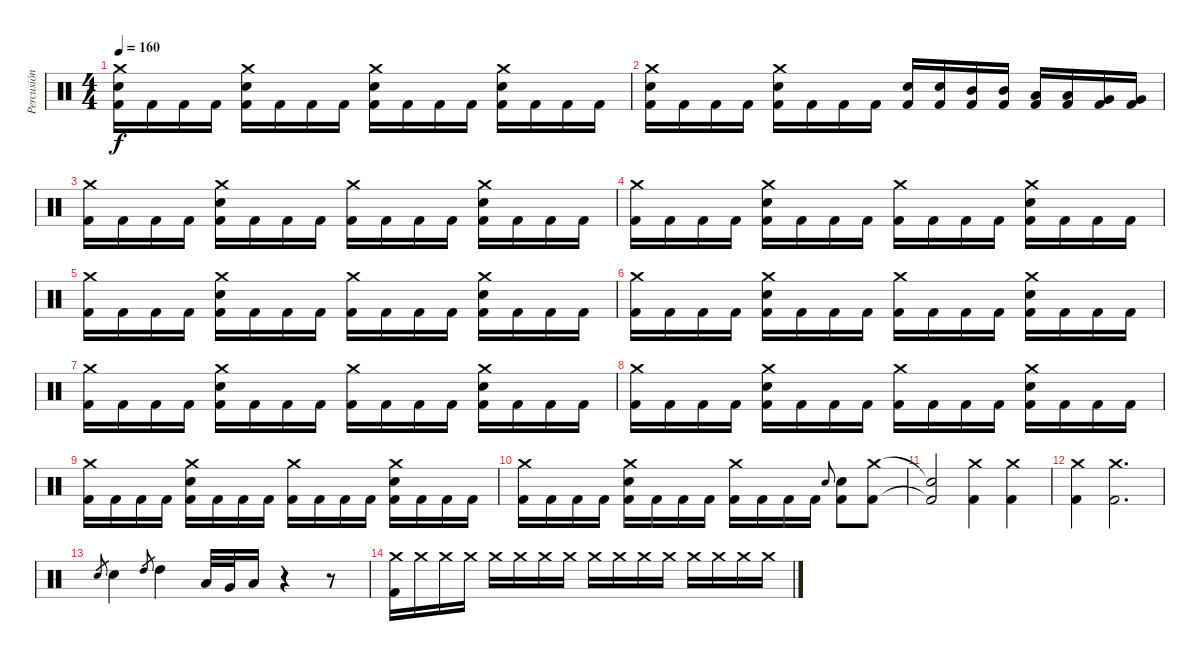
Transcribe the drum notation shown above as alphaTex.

\track ("Percusión" "Percusión") {instrument percussion}
\staff {score}
\articulation defaults
\ts (4 4)
\tempo 160
\clef neutral
\ks c
("Crash medium (hit)" "Snare (hit) 2" "Kick (hit) 2").16{dy f} "Kick (hit) 2".16 "Kick (hit) 2".16 "Kick (hit) 2".16 ("Crash medium (hit)" "Snare (hit) 2" "Kick (hit) 2").16 "Kick (hit) 2".16 "Kick (hit) 2".16 "Kick (hit) 2".16 ("Crash medium (hit)" "Snare (hit) 2" "Kick (hit) 2").16 "Kick (hit) 2".16 "Kick (hit) 2".16 "Kick (hit) 2".16 ("Crash medium (hit)" "Snare (hit) 2" "Kick (hit) 2").16 "Kick (hit) 2".16 "Kick (hit) 2".16 "Kick (hit) 2".16 |
("Crash medium (hit)" "Snare (hit) 2" "Kick (hit) 2").16 "Kick (hit) 2".16 "Kick (hit) 2".16 "Kick (hit) 2".16 ("Crash medium (hit)" "Snare (hit) 2" "Kick (hit) 2").16 "Kick (hit) 2".16 "Kick (hit) 2".16 "Kick (hit) 2".16 ("Snare (hit) 2" "Kick (hit) 2").16 ("Snare (hit) 2" "Kick (hit) 2").16 ("Mid Tom (hit)" "Kick (hit) 2").16 ("Mid Tom (hit)" "Kick (hit) 2").16 ("Low Tom (hit)" "Kick (hit) 2").16 ("Low Tom (hit)" "Kick (hit) 2").16 ("Very Low Tom (hit)" "Kick (hit) 2").16 ("Very Low Tom (hit)" "Kick (hit) 2").16 |
("Crash medium (hit)" "Kick (hit) 2").16 "Kick (hit) 2".16 "Kick (hit) 2".16 "Kick (hit) 2".16 ("Crash medium (hit)" "Kick (hit) 2" "Snare (hit) 2").16 "Kick (hit) 2".16 "Kick (hit) 2".16 "Kick (hit) 2".16 ("Crash medium (hit)" "Kick (hit) 2").16 "Kick (hit) 2".16 "Kick (hit) 2".16 "Kick (hit) 2".16 ("Crash medium (hit)" "Snare (hit) 2" "Kick (hit) 2").16 "Kick (hit) 2".16 "Kick (hit) 2".16 "Kick (hit) 2".16 |
("Crash medium (hit)" "Kick (hit) 2").16 "Kick (hit) 2".16 "Kick (hit) 2".16 "Kick (hit) 2".16 ("Crash medium (hit)" "Kick (hit) 2" "Snare (hit) 2").16 "Kick (hit) 2".16 "Kick (hit) 2".16 "Kick (hit) 2".16 ("Crash medium (hit)" "Kick (hit) 2").16 "Kick (hit) 2".16 "Kick (hit) 2".16 "Kick (hit) 2".16 ("Crash medium (hit)" "Snare (hit) 2" "Kick (hit) 2").16 "Kick (hit) 2".16 "Kick (hit) 2".16 "Kick (hit) 2".16 |
("Crash medium (hit)" "Kick (hit) 2").16 "Kick (hit) 2".16 "Kick (hit) 2".16 "Kick (hit) 2".16 ("Crash medium (hit)" "Kick (hit) 2" "Snare (hit) 2").16 "Kick (hit) 2".16 "Kick (hit) 2".16 "Kick (hit) 2".16 ("Crash medium (hit)" "Kick (hit) 2").16 "Kick (hit) 2".16 "Kick (hit) 2".16 "Kick (hit) 2".16 ("Crash medium (hit)" "Snare (hit) 2" "Kick (hit) 2").16 "Kick (hit) 2".16 "Kick (hit) 2".16 "Kick (hit) 2".16 |
("Crash medium (hit)" "Kick (hit) 2").16 "Kick (hit) 2".16 "Kick (hit) 2".16 "Kick (hit) 2".16 ("Crash medium (hit)" "Kick (hit) 2" "Snare (hit) 2").16 "Kick (hit) 2".16 "Kick (hit) 2".16 "Kick (hit) 2".16 ("Crash medium (hit)" "Kick (hit) 2").16 "Kick (hit) 2".16 "Kick (hit) 2".16 "Kick (hit) 2".16 ("Crash medium (hit)" "Snare (hit) 2" "Kick (hit) 2").16 "Kick (hit) 2".16 "Kick (hit) 2".16 "Kick (hit) 2".16 |
("Crash medium (hit)" "Kick (hit) 2").16 "Kick (hit) 2".16 "Kick (hit) 2".16 "Kick (hit) 2".16 ("Crash medium (hit)" "Kick (hit) 2" "Snare (hit) 2").16 "Kick (hit) 2".16 "Kick (hit) 2".16 "Kick (hit) 2".16 ("Crash medium (hit)" "Kick (hit) 2").16 "Kick (hit) 2".16 "Kick (hit) 2".16 "Kick (hit) 2".16 ("Crash medium (hit)" "Snare (hit) 2" "Kick (hit) 2").16 "Kick (hit) 2".16 "Kick (hit) 2".16 "Kick (hit) 2".16 |
("Crash medium (hit)" "Kick (hit) 2").16 "Kick (hit) 2".16 "Kick (hit) 2".16 "Kick (hit) 2".16 ("Crash medium (hit)" "Kick (hit) 2" "Snare (hit) 2").16 "Kick (hit) 2".16 "Kick (hit) 2".16 "Kick (hit) 2".16 ("Crash medium (hit)" "Kick (hit) 2").16 "Kick (hit) 2".16 "Kick (hit) 2".16 "Kick (hit) 2".16 ("Crash medium (hit)" "Snare (hit) 2" "Kick (hit) 2").16 "Kick (hit) 2".16 "Kick (hit) 2".16 "Kick (hit) 2".16 |
("Crash medium (hit)" "Kick (hit) 2").16 "Kick (hit) 2".16 "Kick (hit) 2".16 "Kick (hit) 2".16 ("Crash medium (hit)" "Kick (hit) 2" "Snare (hit) 2").16 "Kick (hit) 2".16 "Kick (hit) 2".16 "Kick (hit) 2".16 ("Crash medium (hit)" "Kick (hit) 2").16 "Kick (hit) 2".16 "Kick (hit) 2".16 "Kick (hit) 2".16 ("Crash medium (hit)" "Snare (hit) 2" "Kick (hit) 2").16 "Kick (hit) 2".16 "Kick (hit) 2".16 "Kick (hit) 2".16 |
("Crash medium (hit)" "Kick (hit) 2").16 "Kick (hit) 2".16 "Kick (hit) 2".16 "Kick (hit) 2".16 ("Crash medium (hit)" "Kick (hit) 2" "Snare (hit) 2").16 "Kick (hit) 2".16 "Kick (hit) 2".16 "Kick (hit) 2".16 ("Crash medium (hit)" "Kick (hit) 2").16 "Kick (hit) 2".16 "Kick (hit) 2".16 "Kick (hit) 2".16 "Snare (hit) 2".8{gr onbeat} ("Snare (hit) 2" "Kick (hit) 2").8 ("Crash medium (hit)" "Kick (hit) 2").8 |
("Snare (hit)"{t} "Kick (hit) 2"{t}).2 ("Crash medium (hit)" "Kick (hit) 2").4 ("Crash medium (hit)" "Kick (hit) 2").4 |
("Crash medium (hit)" "Kick (hit) 2").4 ("Crash medium (hit)" "Kick (hit) 2").2{d} |
"Snare (hit) 2".8{gr} "Snare (hit) 2".4 "High Tom (hit)".8{gr} "High Tom (hit)".4 "Low Tom (hit)".32 "Very Low Tom (hit)".32 "Low Floor Tom (hit)".16 r.4 r.8 |
("Crash medium (hit)" "Kick (hit) 2").16 "Crash medium (hit)".16 "Crash medium (hit)".16 "Crash medium (hit)".16 "Crash medium (hit)".16 "Crash medium (hit)".16 "Crash medium (hit)".16 "Crash medium (hit)".16 "Crash medium (hit)".16 "Crash medium (hit)".16 "Crash medium (hit)".16 "Crash medium (hit)".16 "Crash medium (hit)".16 "Crash medium (hit)".16 "Crash medium (hit)".16 "Crash medium (hit)".16
